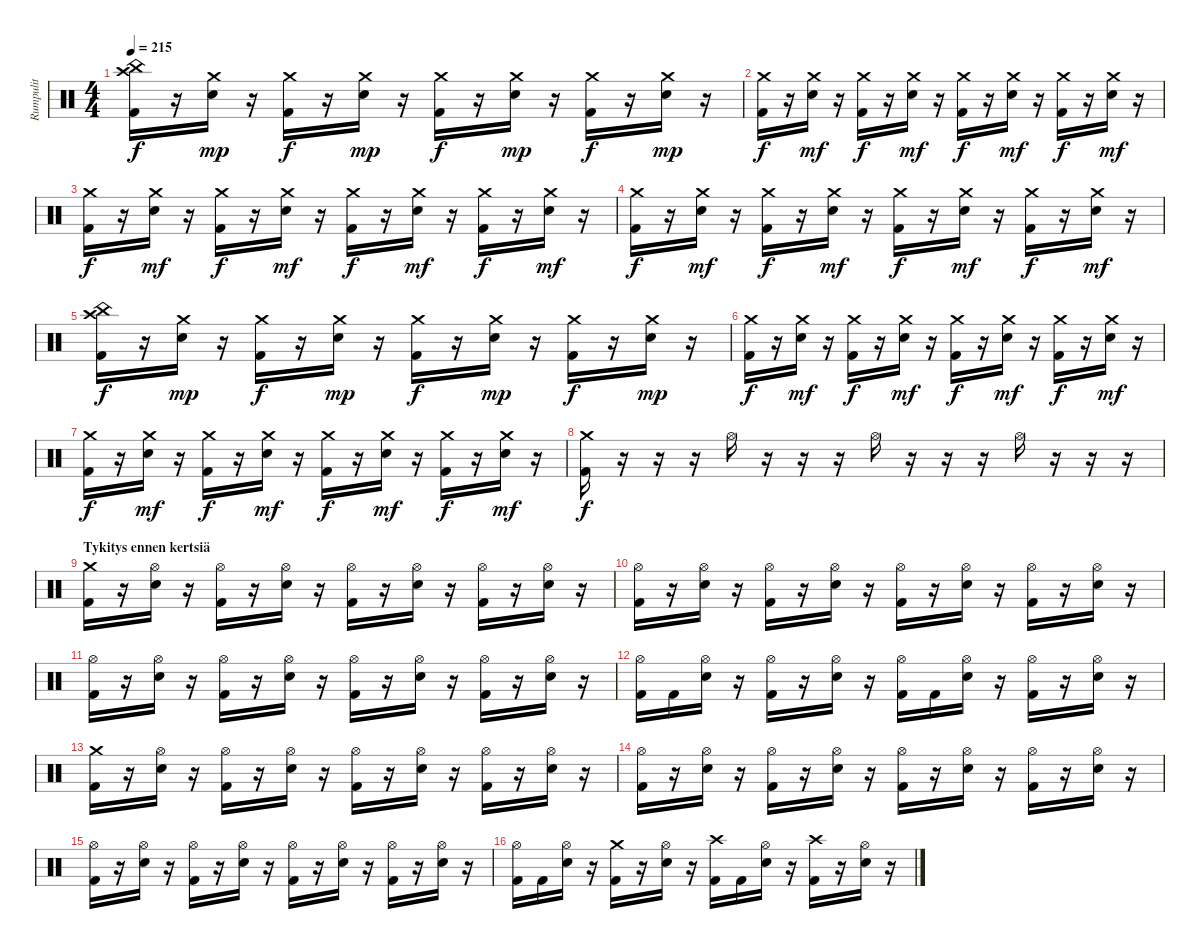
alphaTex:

\track ("Rumpulit" "Rumpulit") {instrument percussion}
\staff {score}
\articulation defaults
\ts (4 4)
\tempo 215
\clef neutral
\ks c
("Crash high (hit)" "Kick (hit) 2" "China (hit)").16{dy f} r.16 ("Crash medium (hit)" "Electric Snare (hit)").16{dy mp} r.16 ("Crash medium (hit)" "Kick (hit) 2").16{dy f} r.16 ("Crash medium (hit)" "Electric Snare (hit)").16{dy mp} r.16 ("Crash medium (hit)" "Kick (hit) 2").16{dy f} r.16 ("Crash medium (hit)" "Electric Snare (hit)").16{dy mp} r.16 ("Crash medium (hit)" "Kick (hit) 2").16{dy f} r.16 ("Crash medium (hit)" "Electric Snare (hit)").16{dy mp} r.16 |
("Crash medium (hit)" "Kick (hit) 2").16{dy f} r.16 ("Crash medium (hit)" "Electric Snare (hit)").16{dy mf} r.16 ("Crash medium (hit)" "Kick (hit) 2").16{dy f} r.16 ("Crash medium (hit)" "Electric Snare (hit)").16{dy mf} r.16 ("Crash medium (hit)" "Kick (hit) 2").16{dy f} r.16 ("Crash medium (hit)" "Electric Snare (hit)").16{dy mf} r.16 ("Crash medium (hit)" "Kick (hit) 2").16{dy f} r.16 ("Crash medium (hit)" "Electric Snare (hit)").16{dy mf} r.16 |
("Crash medium (hit)" "Kick (hit) 2").16{dy f} r.16 ("Crash medium (hit)" "Electric Snare (hit)").16{dy mf} r.16 ("Crash medium (hit)" "Kick (hit) 2").16{dy f} r.16 ("Crash medium (hit)" "Electric Snare (hit)").16{dy mf} r.16 ("Crash medium (hit)" "Kick (hit) 2").16{dy f} r.16 ("Crash medium (hit)" "Electric Snare (hit)").16{dy mf} r.16 ("Crash medium (hit)" "Kick (hit) 2").16{dy f} r.16 ("Crash medium (hit)" "Electric Snare (hit)").16{dy mf} r.16 |
("Crash medium (hit)" "Kick (hit) 2").16{dy f} r.16 ("Crash medium (hit)" "Electric Snare (hit)").16{dy mf} r.16 ("Crash medium (hit)" "Kick (hit) 2").16{dy f} r.16 ("Crash medium (hit)" "Electric Snare (hit)").16{dy mf} r.16 ("Crash medium (hit)" "Kick (hit) 2").16{dy f} r.16 ("Crash medium (hit)" "Electric Snare (hit)").16{dy mf} r.16 ("Crash medium (hit)" "Kick (hit) 2").16{dy f} r.16 ("Crash medium (hit)" "Electric Snare (hit)").16{dy mf} r.16 |
("Crash high (hit)" "Kick (hit) 2" "China (hit)").16{dy f} r.16 ("Crash medium (hit)" "Electric Snare (hit)").16{dy mp} r.16 ("Crash medium (hit)" "Kick (hit) 2").16{dy f} r.16 ("Crash medium (hit)" "Electric Snare (hit)").16{dy mp} r.16 ("Crash medium (hit)" "Kick (hit) 2").16{dy f} r.16 ("Crash medium (hit)" "Electric Snare (hit)").16{dy mp} r.16 ("Crash medium (hit)" "Kick (hit) 2").16{dy f} r.16 ("Crash medium (hit)" "Electric Snare (hit)").16{dy mp} r.16 |
("Crash medium (hit)" "Kick (hit) 2").16{dy f} r.16 ("Crash medium (hit)" "Electric Snare (hit)").16{dy mf} r.16 ("Crash medium (hit)" "Kick (hit) 2").16{dy f} r.16 ("Crash medium (hit)" "Electric Snare (hit)").16{dy mf} r.16 ("Crash medium (hit)" "Kick (hit) 2").16{dy f} r.16 ("Crash medium (hit)" "Electric Snare (hit)").16{dy mf} r.16 ("Crash medium (hit)" "Kick (hit) 2").16{dy f} r.16 ("Crash medium (hit)" "Electric Snare (hit)").16{dy mf} r.16 |
("Crash medium (hit)" "Kick (hit) 2").16{dy f} r.16 ("Crash medium (hit)" "Electric Snare (hit)").16{dy mf} r.16 ("Crash medium (hit)" "Kick (hit) 2").16{dy f} r.16 ("Crash medium (hit)" "Electric Snare (hit)").16{dy mf} r.16 ("Crash medium (hit)" "Kick (hit) 2").16{dy f} r.16 ("Crash medium (hit)" "Electric Snare (hit)").16{dy mf} r.16 ("Crash medium (hit)" "Kick (hit) 2").16{dy f} r.16 ("Crash medium (hit)" "Electric Snare (hit)").16{dy mf} r.16 |
("Crash medium (hit)" "Kick (hit) 2").16{dy f} r.16 r.16 r.16 "Hi-Hat (open)".16 r.16 r.16 r.16 "Hi-Hat (open)".16 r.16 r.16 r.16 "Hi-Hat (open)".16 r.16 r.16 r.16 |
\section ("" "Tykitys ennen kertsiä")
("Crash medium (hit)" "Kick (hit) 2").16 r.16 ("Hi-Hat (open)" "Electric Snare (hit)").16 r.16 ("Hi-Hat (open)" "Kick (hit) 2").16 r.16 ("Hi-Hat (open)" "Electric Snare (hit)").16 r.16 ("Hi-Hat (open)" "Kick (hit) 2").16 r.16 ("Hi-Hat (open)" "Electric Snare (hit)").16 r.16 ("Hi-Hat (open)" "Kick (hit) 2").16 r.16 ("Hi-Hat (open)" "Electric Snare (hit)").16 r.16 |
("Hi-Hat (open)" "Kick (hit) 2").16 r.16 ("Hi-Hat (open)" "Electric Snare (hit)").16 r.16 ("Hi-Hat (open)" "Kick (hit) 2").16 r.16 ("Hi-Hat (open)" "Electric Snare (hit)").16 r.16 ("Hi-Hat (open)" "Kick (hit) 2").16 r.16 ("Hi-Hat (open)" "Electric Snare (hit)").16 r.16 ("Hi-Hat (open)" "Kick (hit) 2").16 r.16 ("Hi-Hat (open)" "Electric Snare (hit)").16 r.16 |
("Hi-Hat (open)" "Kick (hit) 2").16 r.16 ("Hi-Hat (open)" "Electric Snare (hit)").16 r.16 ("Hi-Hat (open)" "Kick (hit) 2").16 r.16 ("Hi-Hat (open)" "Electric Snare (hit)").16 r.16 ("Hi-Hat (open)" "Kick (hit) 2").16 r.16 ("Hi-Hat (open)" "Electric Snare (hit)").16 r.16 ("Hi-Hat (open)" "Kick (hit) 2").16 r.16 ("Hi-Hat (open)" "Electric Snare (hit)").16 r.16 |
("Hi-Hat (open)" "Kick (hit) 2").16 "Kick (hit) 2".16 ("Hi-Hat (open)" "Electric Snare (hit)").16 r.16 ("Hi-Hat (open)" "Kick (hit) 2").16 r.16 ("Hi-Hat (open)" "Electric Snare (hit)").16 r.16 ("Hi-Hat (open)" "Kick (hit) 2").16 "Kick (hit) 2".16 ("Hi-Hat (open)" "Electric Snare (hit)").16 r.16 ("Hi-Hat (open)" "Kick (hit) 2").16 r.16 ("Hi-Hat (open)" "Electric Snare (hit)").16 r.16 |
("Crash medium (hit)" "Kick (hit) 2").16 r.16 ("Hi-Hat (open)" "Electric Snare (hit)").16 r.16 ("Hi-Hat (open)" "Kick (hit) 2").16 r.16 ("Hi-Hat (open)" "Electric Snare (hit)").16 r.16 ("Hi-Hat (open)" "Kick (hit) 2").16 r.16 ("Hi-Hat (open)" "Electric Snare (hit)").16 r.16 ("Hi-Hat (open)" "Kick (hit) 2").16 r.16 ("Hi-Hat (open)" "Electric Snare (hit)").16 r.16 |
("Hi-Hat (open)" "Kick (hit) 2").16 r.16 ("Hi-Hat (open)" "Electric Snare (hit)").16 r.16 ("Hi-Hat (open)" "Kick (hit) 2").16 r.16 ("Hi-Hat (open)" "Electric Snare (hit)").16 r.16 ("Hi-Hat (open)" "Kick (hit) 2").16 r.16 ("Hi-Hat (open)" "Electric Snare (hit)").16 r.16 ("Hi-Hat (open)" "Kick (hit) 2").16 r.16 ("Hi-Hat (open)" "Electric Snare (hit)").16 r.16 |
("Hi-Hat (open)" "Kick (hit) 2").16 r.16 ("Hi-Hat (open)" "Electric Snare (hit)").16 r.16 ("Hi-Hat (open)" "Kick (hit) 2").16 r.16 ("Hi-Hat (open)" "Electric Snare (hit)").16 r.16 ("Hi-Hat (open)" "Kick (hit) 2").16 r.16 ("Hi-Hat (open)" "Electric Snare (hit)").16 r.16 ("Hi-Hat (open)" "Kick (hit) 2").16 r.16 ("Hi-Hat (open)" "Electric Snare (hit)").16 r.16 |
("Hi-Hat (open)" "Kick (hit) 2").16 "Kick (hit) 2".16 ("Hi-Hat (open)" "Electric Snare (hit)").16 r.16 ("Crash medium (hit)" "Kick (hit) 2").16 r.16 ("Hi-Hat (open)" "Electric Snare (hit)").16 r.16 ("Crash high (hit)" "Kick (hit) 2").16 "Kick (hit) 2".16 ("Hi-Hat (open)" "Electric Snare (hit)").16 r.16 ("Crash high (hit)" "Kick (hit) 2").16 r.16 ("Hi-Hat (open)" "Electric Snare (hit)").16 r.16
